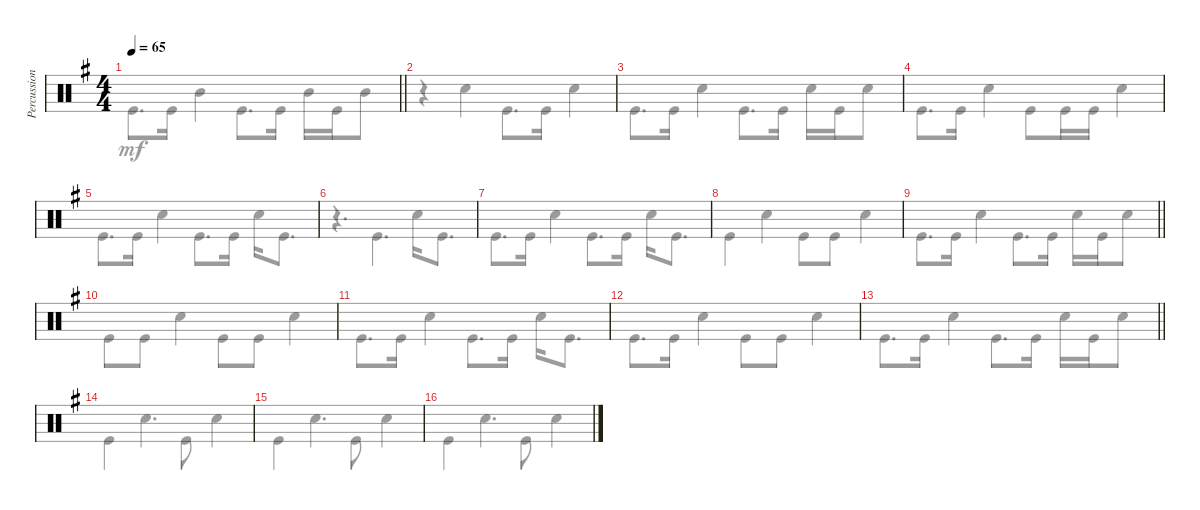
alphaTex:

\track ("Percussion" "Percussion") {instrument percussion}
\staff {score}
\articulation defaults
\voice
\ts (4 4)
\tempo 65
\clef neutral
\barLineRight lightlight
\ks eminor
|
|
|
|
|
|
|
|
\barLineRight lightlight
|
|
|
|
\barLineRight lightlight
|
|
|
\voice
\clef neutral
\barLineRight lightlight
\ks eminor "Kick (hit)".8{d dy mf} "Kick (hit)".16 "Mid Tom (hit)".4 "Kick (hit)".8{d} "Kick (hit)".16 "Mid Tom (hit)".16 "Kick (hit)".16 "Mid Tom (hit)".8
|
r.4 "Snare (hit) 2".4 "Kick (hit)".8{d} "Kick (hit)".16 "Snare (hit) 2".4 |
"Kick (hit)".8{d} "Kick (hit)".16 "Snare (hit) 2".4 "Kick (hit)".8{d} "Kick (hit)".16 "Snare (hit) 2".16 "Kick (hit)".16 "Snare (hit) 2".8 |
"Kick (hit)".8{d} "Kick (hit)".16 "Snare (hit) 2".4 "Kick (hit)".8 "Kick (hit)".16 "Kick (hit)".16 "Snare (hit) 2".4 |
"Kick (hit)".8{d} "Kick (hit)".16 "Snare (hit) 2".4 "Kick (hit)".8{d} "Kick (hit)".16 "Snare (hit) 2".16 "Kick (hit)".8{d} |
r.4{d} "Kick (hit)".4{d} "Snare (hit) 2".16 "Kick (hit)".8{d} |
"Kick (hit)".8{d} "Kick (hit)".16 "Snare (hit) 2".4 "Kick (hit)".8{d} "Kick (hit)".16 "Snare (hit) 2".16 "Kick (hit)".8{d} |
"Kick (hit)".4 "Snare (hit) 2".4 "Kick (hit)".8 "Kick (hit)".8 "Snare (hit) 2".4 |
\barLineRight lightlight "Kick (hit)".8{d} "Kick (hit)".16 "Snare (hit) 2".4 "Kick (hit)".8{d} "Kick (hit)".16 "Snare (hit) 2".16 "Kick (hit)".16 "Snare (hit) 2".8
|
"Kick (hit)".8 "Kick (hit)".8 "Snare (hit) 2".4 "Kick (hit)".8 "Kick (hit)".8 "Snare (hit) 2".4 |
"Kick (hit)".8{d} "Kick (hit)".16 "Snare (hit) 2".4 "Kick (hit)".8{d} "Kick (hit)".16 "Snare (hit) 2".16 "Kick (hit)".8{d} |
"Kick (hit)".8{d} "Kick (hit)".16 "Snare (hit) 2".4 "Kick (hit)".8 "Kick (hit)".8 "Snare (hit) 2".4 |
\barLineRight lightlight "Kick (hit)".8{d} "Kick (hit)".16 "Snare (hit) 2".4 "Kick (hit)".8{d} "Kick (hit)".16 "Snare (hit) 2".16 "Kick (hit)".16 "Snare (hit) 2".8
|
"Kick (hit)".4 "Snare (hit) 2".4{d} "Kick (hit)".8 "Snare (hit) 2".4 |
"Kick (hit)".4 "Snare (hit) 2".4{d} "Kick (hit)".8 "Snare (hit) 2".4 |
"Kick (hit)".4 "Snare (hit) 2".4{d} "Kick (hit)".8 "Snare (hit) 2".4
